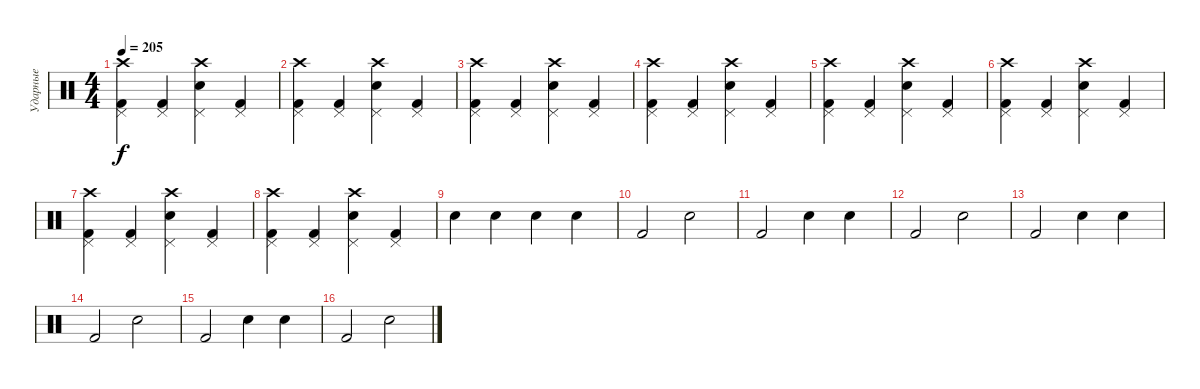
\track ("Ударные" "Ударные") {instrument percussion}
\staff {score}
\articulation defaults
\ts (4 4)
\tempo 205
\clef neutral
\ks c
("Crash high (hit)" "Pedal Hi-Hat (hit)" "Kick (hit) 2").4{dy f} ("Pedal Hi-Hat (hit)" "Kick (hit) 2").4 ("Crash high (hit)" "Pedal Hi-Hat (hit)" "Snare (hit) 2").4 ("Pedal Hi-Hat (hit)" "Kick (hit) 2").4 |
("Crash high (hit)" "Pedal Hi-Hat (hit)" "Kick (hit) 2").4 ("Pedal Hi-Hat (hit)" "Kick (hit) 2").4 ("Crash high (hit)" "Pedal Hi-Hat (hit)" "Snare (hit) 2").4 ("Pedal Hi-Hat (hit)" "Kick (hit) 2").4 |
("Crash high (hit)" "Pedal Hi-Hat (hit)" "Kick (hit) 2").4 ("Pedal Hi-Hat (hit)" "Kick (hit) 2").4 ("Crash high (hit)" "Pedal Hi-Hat (hit)" "Snare (hit) 2").4 ("Pedal Hi-Hat (hit)" "Kick (hit) 2").4 |
("Crash high (hit)" "Pedal Hi-Hat (hit)" "Kick (hit) 2").4 ("Pedal Hi-Hat (hit)" "Kick (hit) 2").4 ("Crash high (hit)" "Pedal Hi-Hat (hit)" "Snare (hit) 2").4 ("Pedal Hi-Hat (hit)" "Kick (hit) 2").4 |
("Crash high (hit)" "Pedal Hi-Hat (hit)" "Kick (hit) 2").4 ("Pedal Hi-Hat (hit)" "Kick (hit) 2").4 ("Crash high (hit)" "Pedal Hi-Hat (hit)" "Snare (hit) 2").4 ("Pedal Hi-Hat (hit)" "Kick (hit) 2").4 |
("Crash high (hit)" "Pedal Hi-Hat (hit)" "Kick (hit) 2").4 ("Pedal Hi-Hat (hit)" "Kick (hit) 2").4 ("Crash high (hit)" "Pedal Hi-Hat (hit)" "Snare (hit) 2").4 ("Pedal Hi-Hat (hit)" "Kick (hit) 2").4 |
("Crash high (hit)" "Pedal Hi-Hat (hit)" "Kick (hit) 2").4 ("Pedal Hi-Hat (hit)" "Kick (hit) 2").4 ("Crash high (hit)" "Pedal Hi-Hat (hit)" "Snare (hit) 2").4 ("Pedal Hi-Hat (hit)" "Kick (hit) 2").4 |
("Crash high (hit)" "Pedal Hi-Hat (hit)" "Kick (hit) 2").4 ("Pedal Hi-Hat (hit)" "Kick (hit) 2").4 ("Crash high (hit)" "Pedal Hi-Hat (hit)" "Snare (hit) 2").4 ("Pedal Hi-Hat (hit)" "Kick (hit) 2").4 |
"Snare (hit) 2".4 "Snare (hit) 2".4 "Snare (hit) 2".4 "Snare (hit) 2".4 |
"Kick (hit) 2".2 "Snare (hit) 2".2 |
"Kick (hit) 2".2 "Snare (hit) 2".4 "Snare (hit) 2".4 |
"Kick (hit) 2".2 "Snare (hit) 2".2 |
"Kick (hit) 2".2 "Snare (hit) 2".4 "Snare (hit) 2".4 |
"Kick (hit) 2".2 "Snare (hit) 2".2 |
"Kick (hit) 2".2 "Snare (hit) 2".4 "Snare (hit) 2".4 |
"Kick (hit) 2".2 "Snare (hit) 2".2
